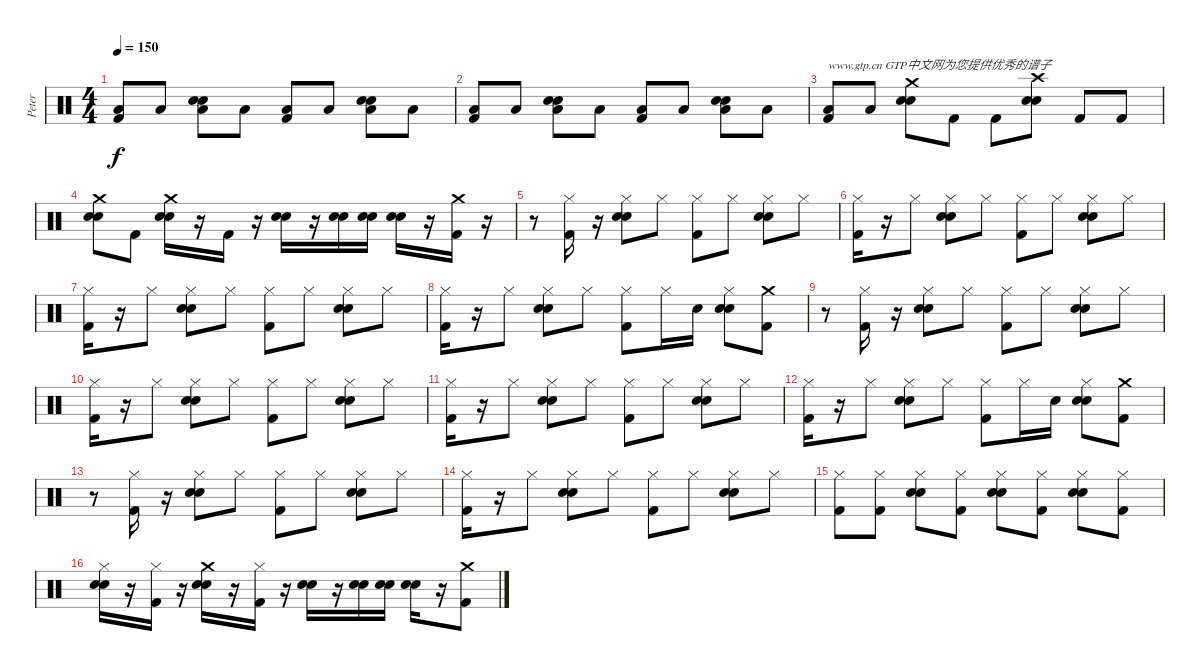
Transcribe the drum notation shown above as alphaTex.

\track ("Peter" "Peter") {instrument percussion}
\staff {score}
\articulation defaults
\ts (4 4)
\tempo 150
\clef neutral
\ks c
("Low Floor Tom (hit)" "Kick (hit) 2").8{dy f} "Low Floor Tom (hit)".8 ("Low Floor Tom (hit)" "Electric Snare (hit)" "Snare (hit) 2").8 "Low Floor Tom (hit)".8 ("Low Floor Tom (hit)" "Kick (hit) 2").8 "Low Floor Tom (hit)".8 ("Low Floor Tom (hit)" "Electric Snare (hit)" "Snare (hit) 2").8 "Low Floor Tom (hit)".8 |
("Low Floor Tom (hit)" "Kick (hit) 2").8 "Low Floor Tom (hit)".8 ("Low Floor Tom (hit)" "Electric Snare (hit)" "Snare (hit) 2").8 "Low Floor Tom (hit)".8 ("Low Floor Tom (hit)" "Kick (hit) 2").8 "Low Floor Tom (hit)".8 ("Low Floor Tom (hit)" "Electric Snare (hit)" "Snare (hit) 2").8 "Low Floor Tom (hit)".8 |
("Kick (hit) 2" "Low Floor Tom (hit)").8{txt "www.gtp.cn GTP中文网为您提供优秀的谱子"} "Low Floor Tom (hit)".8 ("Electric Snare (hit)" "Crash medium (hit)" "Snare (hit) 2").8 "Kick (hit) 2".8 "Kick (hit) 2".8 ("Electric Snare (hit)" "Crash high (hit)" "Snare (hit) 2").8 "Kick (hit) 2".8 "Kick (hit) 2".8 |
("Crash medium (hit)" "Snare (hit) 2" "Electric Snare (hit)").8 "Kick (hit) 2".8 ("Crash medium (hit)" "Electric Snare (hit)" "Snare (hit) 2").16 r.16 "Kick (hit) 2".16 r.16 ("Electric Snare (hit)" "Snare (hit) 2").16 r.16 ("Electric Snare (hit)" "Snare (hit) 2").16 ("Electric Snare (hit)" "Snare (hit) 2").16 ("Electric Snare (hit)" "Snare (hit) 2").16 r.16 ("Crash medium (hit)" "Kick (hit) 2").16 r.16 |
r.8 ("Kick (hit) 2" "Hi-Hat (closed)").16 r.16 ("Hi-Hat (closed)" "Electric Snare (hit)" "Snare (hit) 2").8 "Hi-Hat (closed)".8 ("Hi-Hat (closed)" "Kick (hit) 2").8 "Hi-Hat (closed)".8 ("Hi-Hat (closed)" "Electric Snare (hit)" "Snare (hit) 2").8 "Hi-Hat (closed)".8 |
("Hi-Hat (closed)" "Kick (hit) 2").16 r.16 "Hi-Hat (closed)".8 ("Hi-Hat (closed)" "Electric Snare (hit)" "Snare (hit) 2").8 "Hi-Hat (closed)".8 ("Hi-Hat (closed)" "Kick (hit) 2").8 "Hi-Hat (closed)".8 ("Hi-Hat (closed)" "Electric Snare (hit)" "Snare (hit) 2").8 "Hi-Hat (closed)".8 |
("Kick (hit) 2" "Hi-Hat (closed)").16 r.16 "Hi-Hat (closed)".8 ("Electric Snare (hit)" "Hi-Hat (closed)" "Snare (hit) 2").8 "Hi-Hat (closed)".8 ("Hi-Hat (closed)" "Kick (hit) 2").8 "Hi-Hat (closed)".8 ("Hi-Hat (closed)" "Electric Snare (hit)" "Snare (hit) 2").8 "Hi-Hat (closed)".8 |
("Kick (hit) 2" "Hi-Hat (closed)").16 r.16 "Hi-Hat (closed)".8 ("Electric Snare (hit)" "Hi-Hat (closed)" "Snare (hit) 2").8 "Hi-Hat (closed)".8 ("Hi-Hat (closed)" "Kick (hit) 2").8 "Hi-Hat (closed)".16 "Snare (hit) 2".16 ("Hi-Hat (closed)" "Electric Snare (hit)" "Snare (hit) 2").8 ("Kick (hit) 2" "Crash medium (hit)").8 |
r.8 ("Hi-Hat (closed)" "Kick (hit) 2").16 r.16 ("Hi-Hat (closed)" "Electric Snare (hit)" "Snare (hit) 2").8 "Hi-Hat (closed)".8 ("Hi-Hat (closed)" "Kick (hit) 2").8 "Hi-Hat (closed)".8 ("Hi-Hat (closed)" "Electric Snare (hit)" "Snare (hit) 2").8 "Hi-Hat (closed)".8 |
("Hi-Hat (closed)" "Kick (hit) 2").16 r.16 "Hi-Hat (closed)".8 ("Electric Snare (hit)" "Snare (hit) 2" "Hi-Hat (closed)").8 "Hi-Hat (closed)".8 ("Kick (hit) 2" "Hi-Hat (closed)").8 "Hi-Hat (closed)".8 ("Electric Snare (hit)" "Snare (hit) 2" "Hi-Hat (closed)").8 "Hi-Hat (closed)".8 |
("Hi-Hat (closed)" "Kick (hit) 2").16 r.16 "Hi-Hat (closed)".8 ("Electric Snare (hit)" "Hi-Hat (closed)" "Snare (hit) 2").8 "Hi-Hat (closed)".8 ("Hi-Hat (closed)" "Kick (hit) 2").8 "Hi-Hat (closed)".8 ("Hi-Hat (closed)" "Electric Snare (hit)" "Snare (hit) 2").8 "Hi-Hat (closed)".8 |
("Kick (hit) 2" "Hi-Hat (closed)").16 r.16 "Hi-Hat (closed)".8 ("Electric Snare (hit)" "Hi-Hat (closed)" "Snare (hit) 2").8 "Hi-Hat (closed)".8 ("Hi-Hat (closed)" "Kick (hit) 2").8 "Hi-Hat (closed)".16 "Snare (hit) 2".16 ("Hi-Hat (closed)" "Electric Snare (hit)" "Snare (hit) 2").8 ("Kick (hit) 2" "Crash medium (hit)").8 |
r.8 ("Hi-Hat (closed)" "Kick (hit) 2").16 r.16 ("Hi-Hat (closed)" "Electric Snare (hit)" "Snare (hit) 2").8 "Hi-Hat (closed)".8 ("Hi-Hat (closed)" "Kick (hit) 2").8 "Hi-Hat (closed)".8 ("Hi-Hat (closed)" "Electric Snare (hit)" "Snare (hit) 2").8 "Hi-Hat (closed)".8 |
("Hi-Hat (closed)" "Kick (hit) 2").16 r.16 "Hi-Hat (closed)".8 ("Electric Snare (hit)" "Snare (hit) 2" "Hi-Hat (closed)").8 "Hi-Hat (closed)".8 ("Kick (hit) 2" "Hi-Hat (closed)").8 "Hi-Hat (closed)".8 ("Electric Snare (hit)" "Snare (hit) 2" "Hi-Hat (closed)").8 "Hi-Hat (closed)".8 |
("Hi-Hat (closed)" "Kick (hit) 2").8 ("Hi-Hat (closed)" "Kick (hit) 2").8 ("Hi-Hat (closed)" "Electric Snare (hit)" "Snare (hit) 2").8 ("Hi-Hat (closed)" "Kick (hit) 2").8 ("Hi-Hat (closed)" "Electric Snare (hit)" "Snare (hit) 2").8 ("Hi-Hat (closed)" "Kick (hit) 2").8 ("Hi-Hat (closed)" "Electric Snare (hit)" "Snare (hit) 2").8 ("Hi-Hat (closed)" "Kick (hit) 2").8 |
("Hi-Hat (closed)" "Snare (hit) 2" "Electric Snare (hit)").16 r.16 ("Hi-Hat (closed)" "Kick (hit) 2").16 r.16 ("Crash medium (hit)" "Snare (hit) 2" "Electric Snare (hit)").16 r.16 ("Hi-Hat (closed)" "Kick (hit) 2").16 r.16 ("Snare (hit) 2" "Electric Snare (hit)").16 r.16 ("Snare (hit) 2" "Electric Snare (hit)").16 ("Snare (hit) 2" "Electric Snare (hit)").16 ("Snare (hit) 2" "Electric Snare (hit)").16 r.16 ("Crash medium (hit)" "Kick (hit) 2").8
